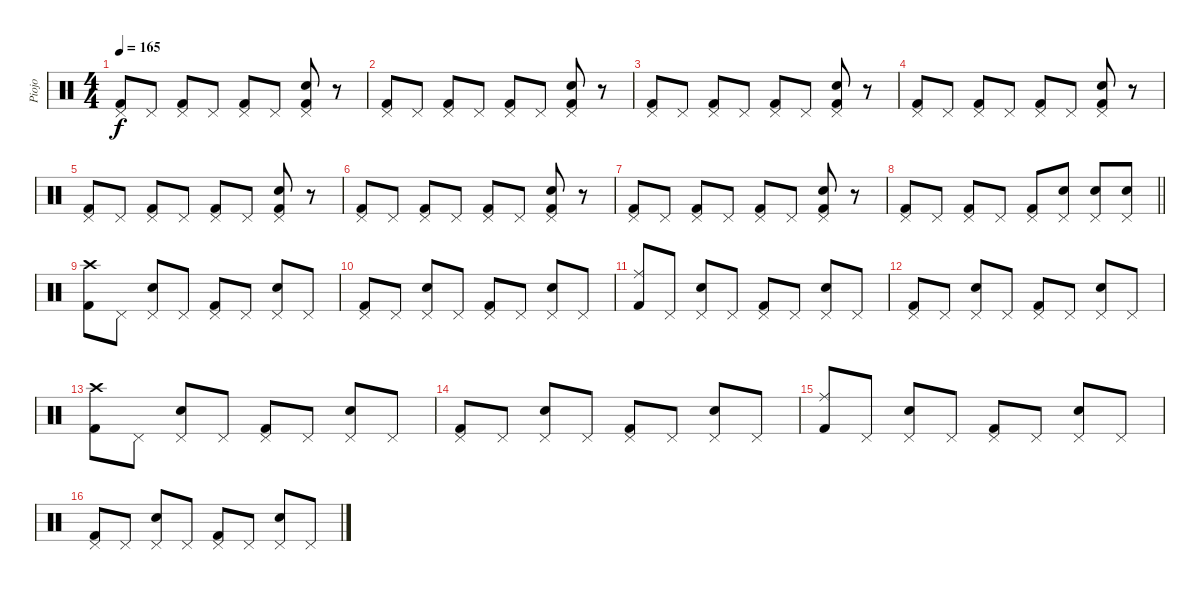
\track ("Piojo" "Piojo") {instrument percussion}
\staff {score}
\articulation defaults
\ts (4 4)
\tempo 165
\clef neutral
\ks c
("Pedal Hi-Hat (hit)" "Kick (hit) 2").8{dy f} "Pedal Hi-Hat (hit)".8 ("Pedal Hi-Hat (hit)" "Kick (hit) 2").8 "Pedal Hi-Hat (hit)".8 ("Pedal Hi-Hat (hit)" "Kick (hit) 2").8 "Pedal Hi-Hat (hit)".8 ("Pedal Hi-Hat (hit)" "Electric Snare (hit)" "Kick (hit) 2").8 r.8 |
("Pedal Hi-Hat (hit)" "Kick (hit) 2").8 "Pedal Hi-Hat (hit)".8 ("Pedal Hi-Hat (hit)" "Kick (hit) 2").8 "Pedal Hi-Hat (hit)".8 ("Pedal Hi-Hat (hit)" "Kick (hit) 2").8 "Pedal Hi-Hat (hit)".8 ("Pedal Hi-Hat (hit)" "Electric Snare (hit)" "Kick (hit) 2").8 r.8 |
("Pedal Hi-Hat (hit)" "Kick (hit) 2").8 "Pedal Hi-Hat (hit)".8 ("Pedal Hi-Hat (hit)" "Kick (hit) 2").8 "Pedal Hi-Hat (hit)".8 ("Pedal Hi-Hat (hit)" "Kick (hit) 2").8 "Pedal Hi-Hat (hit)".8 ("Pedal Hi-Hat (hit)" "Electric Snare (hit)" "Kick (hit) 2").8 r.8 |
("Pedal Hi-Hat (hit)" "Kick (hit) 2").8 "Pedal Hi-Hat (hit)".8 ("Pedal Hi-Hat (hit)" "Kick (hit) 2").8 "Pedal Hi-Hat (hit)".8 ("Pedal Hi-Hat (hit)" "Kick (hit) 2").8 "Pedal Hi-Hat (hit)".8 ("Pedal Hi-Hat (hit)" "Electric Snare (hit)" "Kick (hit) 2").8 r.8 |
("Pedal Hi-Hat (hit)" "Kick (hit) 2").8 "Pedal Hi-Hat (hit)".8 ("Pedal Hi-Hat (hit)" "Kick (hit) 2").8 "Pedal Hi-Hat (hit)".8 ("Pedal Hi-Hat (hit)" "Kick (hit) 2").8 "Pedal Hi-Hat (hit)".8 ("Pedal Hi-Hat (hit)" "Electric Snare (hit)" "Kick (hit) 2").8 r.8 |
("Pedal Hi-Hat (hit)" "Kick (hit) 2").8 "Pedal Hi-Hat (hit)".8 ("Pedal Hi-Hat (hit)" "Kick (hit) 2").8 "Pedal Hi-Hat (hit)".8 ("Pedal Hi-Hat (hit)" "Kick (hit) 2").8 "Pedal Hi-Hat (hit)".8 ("Pedal Hi-Hat (hit)" "Electric Snare (hit)" "Kick (hit) 2").8 r.8 |
("Pedal Hi-Hat (hit)" "Kick (hit) 2").8 "Pedal Hi-Hat (hit)".8 ("Pedal Hi-Hat (hit)" "Kick (hit) 2").8 "Pedal Hi-Hat (hit)".8 ("Pedal Hi-Hat (hit)" "Kick (hit) 2").8 "Pedal Hi-Hat (hit)".8 ("Pedal Hi-Hat (hit)" "Electric Snare (hit)" "Kick (hit) 2").8 r.8 |
\barLineRight lightlight
("Pedal Hi-Hat (hit)" "Kick (hit) 2").8 "Pedal Hi-Hat (hit)".8 ("Pedal Hi-Hat (hit)" "Kick (hit) 2").8 "Pedal Hi-Hat (hit)".8 ("Pedal Hi-Hat (hit)" "Kick (hit) 2").8 ("Pedal Hi-Hat (hit)" "Electric Snare (hit)").8 ("Pedal Hi-Hat (hit)" "Electric Snare (hit)").8 ("Pedal Hi-Hat (hit)" "Electric Snare (hit)").8 |
("Crash high (hit)" "Kick (hit) 2").8 "Pedal Hi-Hat (hit)".8 ("Pedal Hi-Hat (hit)" "Electric Snare (hit)").8 "Pedal Hi-Hat (hit)".8 ("Pedal Hi-Hat (hit)" "Kick (hit) 2").8 "Pedal Hi-Hat (hit)".8 ("Pedal Hi-Hat (hit)" "Electric Snare (hit)").8 "Pedal Hi-Hat (hit)".8 |
("Pedal Hi-Hat (hit)" "Kick (hit) 2").8 "Pedal Hi-Hat (hit)".8 ("Pedal Hi-Hat (hit)" "Electric Snare (hit)").8 "Pedal Hi-Hat (hit)".8 ("Pedal Hi-Hat (hit)" "Kick (hit) 2").8 "Pedal Hi-Hat (hit)".8 ("Pedal Hi-Hat (hit)" "Electric Snare (hit)").8 "Pedal Hi-Hat (hit)".8 |
("Ride (middle)" "Kick (hit) 2").8 "Pedal Hi-Hat (hit)".8 ("Pedal Hi-Hat (hit)" "Electric Snare (hit)").8 "Pedal Hi-Hat (hit)".8 ("Pedal Hi-Hat (hit)" "Kick (hit) 2").8 "Pedal Hi-Hat (hit)".8 ("Pedal Hi-Hat (hit)" "Electric Snare (hit)").8 "Pedal Hi-Hat (hit)".8 |
("Pedal Hi-Hat (hit)" "Kick (hit) 2").8 "Pedal Hi-Hat (hit)".8 ("Pedal Hi-Hat (hit)" "Electric Snare (hit)").8 "Pedal Hi-Hat (hit)".8 ("Pedal Hi-Hat (hit)" "Kick (hit) 2").8 "Pedal Hi-Hat (hit)".8 ("Pedal Hi-Hat (hit)" "Electric Snare (hit)").8 "Pedal Hi-Hat (hit)".8 |
("Crash high (hit)" "Kick (hit) 2").8 "Pedal Hi-Hat (hit)".8 ("Pedal Hi-Hat (hit)" "Electric Snare (hit)").8 "Pedal Hi-Hat (hit)".8 ("Pedal Hi-Hat (hit)" "Kick (hit) 2").8 "Pedal Hi-Hat (hit)".8 ("Pedal Hi-Hat (hit)" "Electric Snare (hit)").8 "Pedal Hi-Hat (hit)".8 |
("Pedal Hi-Hat (hit)" "Kick (hit) 2").8 "Pedal Hi-Hat (hit)".8 ("Pedal Hi-Hat (hit)" "Electric Snare (hit)").8 "Pedal Hi-Hat (hit)".8 ("Pedal Hi-Hat (hit)" "Kick (hit) 2").8 "Pedal Hi-Hat (hit)".8 ("Pedal Hi-Hat (hit)" "Electric Snare (hit)").8 "Pedal Hi-Hat (hit)".8 |
("Ride (middle)" "Kick (hit) 2").8 "Pedal Hi-Hat (hit)".8 ("Pedal Hi-Hat (hit)" "Electric Snare (hit)").8 "Pedal Hi-Hat (hit)".8 ("Pedal Hi-Hat (hit)" "Kick (hit) 2").8 "Pedal Hi-Hat (hit)".8 ("Pedal Hi-Hat (hit)" "Electric Snare (hit)").8 "Pedal Hi-Hat (hit)".8 |
("Pedal Hi-Hat (hit)" "Kick (hit) 2").8 "Pedal Hi-Hat (hit)".8 ("Pedal Hi-Hat (hit)" "Electric Snare (hit)").8 "Pedal Hi-Hat (hit)".8 ("Pedal Hi-Hat (hit)" "Kick (hit) 2").8 "Pedal Hi-Hat (hit)".8 ("Pedal Hi-Hat (hit)" "Electric Snare (hit)").8 "Pedal Hi-Hat (hit)".8
